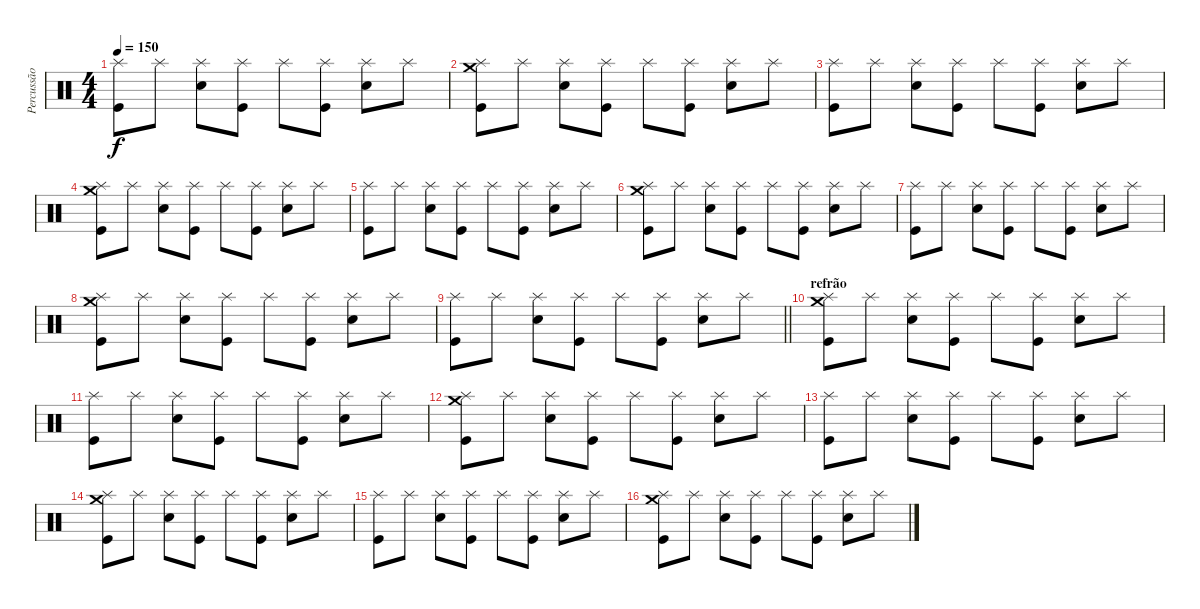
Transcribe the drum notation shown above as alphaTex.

\track ("Percussão" "Percussão") {instrument percussion}
\staff {score}
\articulation defaults
\ts (4 4)
\tempo 150
\clef neutral
\ks c
("Splash (hit)" "Kick (hit)").8{dy f} "Splash (hit)".8 ("Splash (hit)" "Electric Snare (hit)").8 ("Splash (hit)" "Kick (hit)").8 "Splash (hit)".8 ("Splash (hit)" "Kick (hit)").8 ("Splash (hit)" "Electric Snare (hit)").8 "Splash (hit)".8 |
("Crash medium (hit)" "Splash (hit)" "Kick (hit)").8 "Splash (hit)".8 ("Splash (hit)" "Electric Snare (hit)").8 ("Splash (hit)" "Kick (hit)").8 "Splash (hit)".8 ("Splash (hit)" "Kick (hit)").8 ("Splash (hit)" "Electric Snare (hit)").8 "Splash (hit)".8 |
("Splash (hit)" "Kick (hit)").8 "Splash (hit)".8 ("Splash (hit)" "Electric Snare (hit)").8 ("Splash (hit)" "Kick (hit)").8 "Splash (hit)".8 ("Splash (hit)" "Kick (hit)").8 ("Splash (hit)" "Electric Snare (hit)").8 "Splash (hit)".8 |
("Crash medium (hit)" "Splash (hit)" "Kick (hit)").8 "Splash (hit)".8 ("Splash (hit)" "Electric Snare (hit)").8 ("Splash (hit)" "Kick (hit)").8 "Splash (hit)".8 ("Splash (hit)" "Kick (hit)").8 ("Splash (hit)" "Electric Snare (hit)").8 "Splash (hit)".8 |
("Splash (hit)" "Kick (hit)").8 "Splash (hit)".8 ("Splash (hit)" "Electric Snare (hit)").8 ("Splash (hit)" "Kick (hit)").8 "Splash (hit)".8 ("Splash (hit)" "Kick (hit)").8 ("Splash (hit)" "Electric Snare (hit)").8 "Splash (hit)".8 |
("Crash medium (hit)" "Splash (hit)" "Kick (hit)").8 "Splash (hit)".8 ("Splash (hit)" "Electric Snare (hit)").8 ("Splash (hit)" "Kick (hit)").8 "Splash (hit)".8 ("Splash (hit)" "Kick (hit)").8 ("Splash (hit)" "Electric Snare (hit)").8 "Splash (hit)".8 |
("Splash (hit)" "Kick (hit)").8 "Splash (hit)".8 ("Splash (hit)" "Electric Snare (hit)").8 ("Splash (hit)" "Kick (hit)").8 "Splash (hit)".8 ("Splash (hit)" "Kick (hit)").8 ("Splash (hit)" "Electric Snare (hit)").8 "Splash (hit)".8 |
("Crash medium (hit)" "Splash (hit)" "Kick (hit)").8 "Splash (hit)".8 ("Splash (hit)" "Electric Snare (hit)").8 ("Splash (hit)" "Kick (hit)").8 "Splash (hit)".8 ("Splash (hit)" "Kick (hit)").8 ("Splash (hit)" "Electric Snare (hit)").8 "Splash (hit)".8 |
\barLineRight lightlight
("Splash (hit)" "Kick (hit)").8 "Splash (hit)".8 ("Splash (hit)" "Electric Snare (hit)").8 ("Splash (hit)" "Kick (hit)").8 "Splash (hit)".8 ("Splash (hit)" "Kick (hit)").8 ("Splash (hit)" "Electric Snare (hit)").8 "Splash (hit)".8 |
\section ("" "refrão")
("Crash medium (hit)" "Splash (hit)" "Kick (hit)").8 "Splash (hit)".8 ("Splash (hit)" "Electric Snare (hit)").8 ("Splash (hit)" "Kick (hit)").8 "Splash (hit)".8 ("Splash (hit)" "Kick (hit)").8 ("Splash (hit)" "Electric Snare (hit)").8 "Splash (hit)".8 |
("Splash (hit)" "Kick (hit)").8 "Splash (hit)".8 ("Splash (hit)" "Electric Snare (hit)").8 ("Splash (hit)" "Kick (hit)").8 "Splash (hit)".8 ("Splash (hit)" "Kick (hit)").8 ("Splash (hit)" "Electric Snare (hit)").8 "Splash (hit)".8 |
("Crash medium (hit)" "Splash (hit)" "Kick (hit)").8 "Splash (hit)".8 ("Splash (hit)" "Electric Snare (hit)").8 ("Splash (hit)" "Kick (hit)").8 "Splash (hit)".8 ("Splash (hit)" "Kick (hit)").8 ("Splash (hit)" "Electric Snare (hit)").8 "Splash (hit)".8 |
("Splash (hit)" "Kick (hit)").8 "Splash (hit)".8 ("Splash (hit)" "Electric Snare (hit)").8 ("Splash (hit)" "Kick (hit)").8 "Splash (hit)".8 ("Splash (hit)" "Kick (hit)").8 ("Splash (hit)" "Electric Snare (hit)").8 "Splash (hit)".8 |
("Crash medium (hit)" "Splash (hit)" "Kick (hit)").8 "Splash (hit)".8 ("Splash (hit)" "Electric Snare (hit)").8 ("Splash (hit)" "Kick (hit)").8 "Splash (hit)".8 ("Splash (hit)" "Kick (hit)").8 ("Splash (hit)" "Electric Snare (hit)").8 "Splash (hit)".8 |
("Splash (hit)" "Kick (hit)").8 "Splash (hit)".8 ("Splash (hit)" "Electric Snare (hit)").8 ("Splash (hit)" "Kick (hit)").8 "Splash (hit)".8 ("Splash (hit)" "Kick (hit)").8 ("Splash (hit)" "Electric Snare (hit)").8 "Splash (hit)".8 |
("Crash medium (hit)" "Splash (hit)" "Kick (hit)").8 "Splash (hit)".8 ("Splash (hit)" "Electric Snare (hit)").8 ("Splash (hit)" "Kick (hit)").8 "Splash (hit)".8 ("Splash (hit)" "Kick (hit)").8 ("Splash (hit)" "Electric Snare (hit)").8 "Splash (hit)".8
